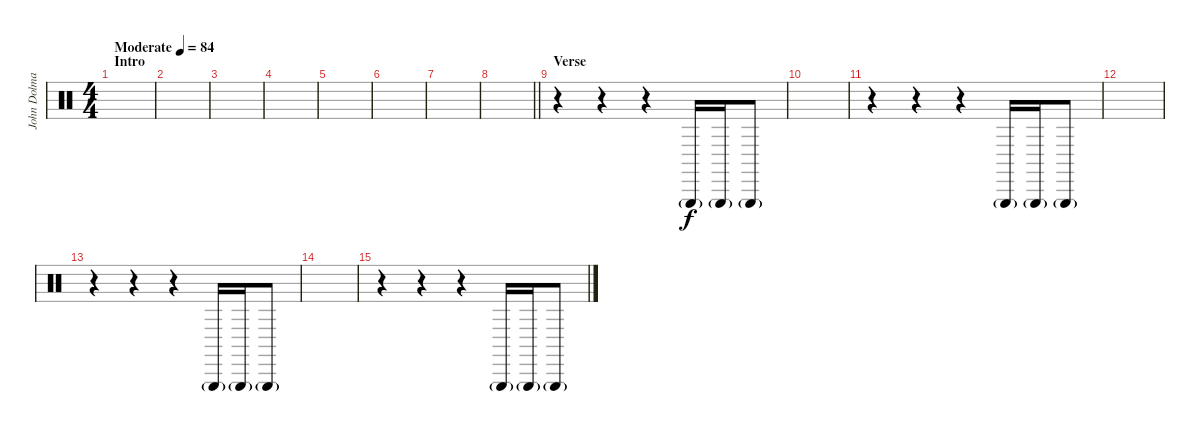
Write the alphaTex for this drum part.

\track ("John Dolmayan" "John Dolma") {instrument percussion}
\staff {score}
\articulation defaults
\ts (4 4)
\section ("" "Intro")
\tempo (84 "Moderate")
\clef neutral
\ks c
|
|
|
|
|
|
|
\barLineRight lightlight
|
\section ("" "Verse")
r.4 r.4 r.4 "Triangle (hit)"{g}.16 "Triangle (hit)"{g}.16 "Triangle (hit)"{g}.8 |
|
r.4 r.4 r.4 "Triangle (hit)"{g}.16 "Triangle (hit)"{g}.16 "Triangle (hit)"{g}.8 |
|
r.4 r.4 r.4 "Triangle (hit)"{g}.16 "Triangle (hit)"{g}.16 "Triangle (hit)"{g}.8 |
|
r.4 r.4 r.4 "Triangle (hit)"{g}.16 "Triangle (hit)"{g}.16 "Triangle (hit)"{g}.8
